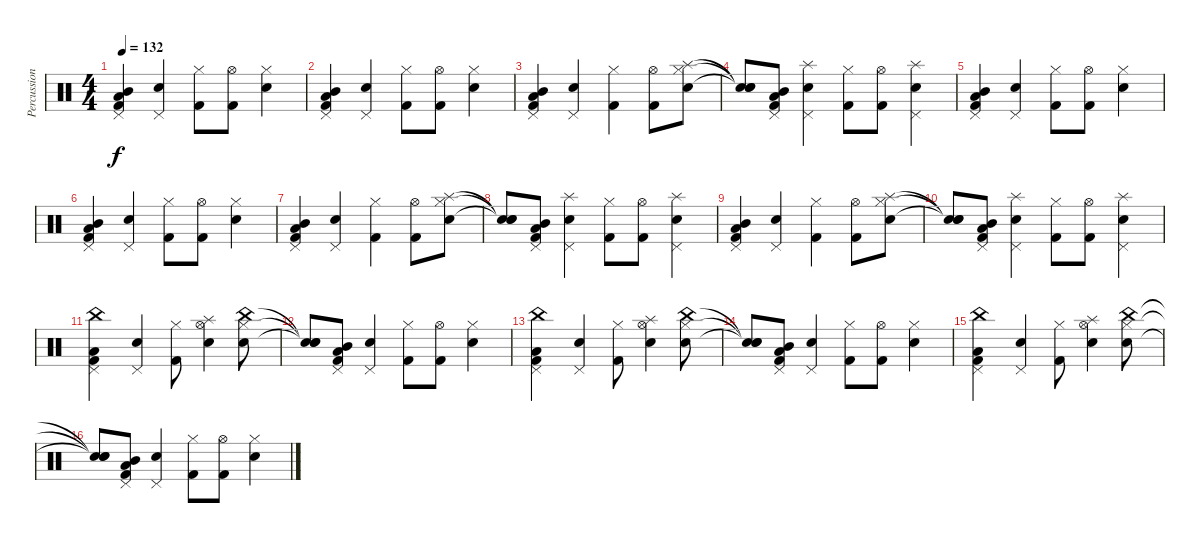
\track ("Percussions" "Percussion") {instrument percussion}
\staff {score}
\articulation defaults
\ts (4 4)
\tempo 132
\clef neutral
\ks c
("Pedal Hi-Hat (hit)" "Mid Tom (hit)" "Low Tom (hit)" "Kick (hit) 2").4{dy f} ("Pedal Hi-Hat (hit)" "Snare (hit) 2").4 ("Hi-Hat (closed)" "Kick (hit) 2").8 ("Hi-Hat (open)" "Kick (hit) 2").8 ("Hi-Hat (closed)" "Snare (hit) 2").4 |
("Pedal Hi-Hat (hit)" "Mid Tom (hit)" "Low Tom (hit)" "Kick (hit) 2").4 ("Pedal Hi-Hat (hit)" "Snare (hit) 2").4 ("Hi-Hat (closed)" "Kick (hit) 2").8 ("Hi-Hat (open)" "Kick (hit) 2").8 ("Hi-Hat (closed)" "Snare (hit) 2").4 |
("Pedal Hi-Hat (hit)" "Mid Tom (hit)" "Low Tom (hit)" "Kick (hit) 2").4 ("Pedal Hi-Hat (hit)" "Snare (hit) 2").4 ("Hi-Hat (closed)" "Kick (hit) 2").4 ("Hi-Hat (open)" "Kick (hit) 2").8 ("Hi-Hat (closed)" "Splash (hit)" "Snare (hit) 2").8 |
("Snare (hit)"{t} "Snare (hit)"{t} "Snare (hit)"{t}).8 ("Pedal Hi-Hat (hit)" "Mid Tom (hit)" "Low Tom (hit)" "Kick (hit) 2").8 ("Pedal Hi-Hat (hit)" "Splash (hit)" "Snare (hit) 2").4 ("Hi-Hat (closed)" "Kick (hit) 2").8 ("Hi-Hat (open)" "Kick (hit) 2").8 ("Pedal Hi-Hat (hit)" "Splash (hit)" "Snare (hit) 2").4 |
("Pedal Hi-Hat (hit)" "Mid Tom (hit)" "Low Tom (hit)" "Kick (hit) 2").4 ("Pedal Hi-Hat (hit)" "Snare (hit) 2").4 ("Hi-Hat (closed)" "Kick (hit) 2").8 ("Hi-Hat (open)" "Kick (hit) 2").8 ("Hi-Hat (closed)" "Snare (hit) 2").4 |
("Pedal Hi-Hat (hit)" "Mid Tom (hit)" "Low Tom (hit)" "Kick (hit) 2").4 ("Pedal Hi-Hat (hit)" "Snare (hit) 2").4 ("Hi-Hat (closed)" "Kick (hit) 2").8 ("Hi-Hat (open)" "Kick (hit) 2").8 ("Hi-Hat (closed)" "Snare (hit) 2").4 |
("Pedal Hi-Hat (hit)" "Mid Tom (hit)" "Low Tom (hit)" "Kick (hit) 2").4 ("Pedal Hi-Hat (hit)" "Snare (hit) 2").4 ("Hi-Hat (closed)" "Kick (hit) 2").4 ("Hi-Hat (open)" "Kick (hit) 2").8 ("Hi-Hat (closed)" "Splash (hit)" "Snare (hit) 2").8 |
("Snare (hit)"{t} "Snare (hit)"{t} "Snare (hit)"{t}).8 ("Pedal Hi-Hat (hit)" "Mid Tom (hit)" "Low Tom (hit)" "Kick (hit) 2").8 ("Pedal Hi-Hat (hit)" "Splash (hit)" "Snare (hit) 2").4 ("Hi-Hat (closed)" "Kick (hit) 2").8 ("Hi-Hat (open)" "Kick (hit) 2").8 ("Pedal Hi-Hat (hit)" "Splash (hit)" "Snare (hit) 2").4 |
("Pedal Hi-Hat (hit)" "Mid Tom (hit)" "Low Tom (hit)" "Kick (hit) 2").4 ("Pedal Hi-Hat (hit)" "Snare (hit) 2").4 ("Hi-Hat (closed)" "Kick (hit) 2").4 ("Hi-Hat (open)" "Kick (hit) 2").8 ("Hi-Hat (closed)" "Splash (hit)" "Snare (hit) 2").8 |
("Snare (hit)"{t} "Snare (hit)"{t} "Snare (hit)"{t}).8 ("Pedal Hi-Hat (hit)" "Mid Tom (hit)" "Low Tom (hit)" "Kick (hit) 2").8 ("Pedal Hi-Hat (hit)" "Splash (hit)" "Snare (hit) 2").4 ("Hi-Hat (closed)" "Kick (hit) 2").8 ("Hi-Hat (open)" "Kick (hit) 2").8 ("Pedal Hi-Hat (hit)" "Splash (hit)" "Snare (hit) 2").4 |
("Pedal Hi-Hat (hit)" "China (hit)" "Low Tom (hit)" "Kick (hit) 2").4 ("Pedal Hi-Hat (hit)" "Snare (hit) 2").4 ("Hi-Hat (closed)" "Kick (hit) 2").8 ("Hi-Hat (open)" "Splash (hit)" "Snare (hit) 2").4 ("Hi-Hat (closed)" "China (hit)" "Snare (hit) 2").8 |
("Snare (hit)"{t} "Snare (hit)"{t} "Snare (hit)"{t}).8 ("Pedal Hi-Hat (hit)" "Mid Tom (hit)" "Low Tom (hit)" "Kick (hit) 2").8 ("Pedal Hi-Hat (hit)" "Snare (hit) 2").4 ("Hi-Hat (closed)" "Kick (hit) 2").8 ("Hi-Hat (open)" "Kick (hit) 2").8 ("Hi-Hat (closed)" "Snare (hit) 2").4 |
("Pedal Hi-Hat (hit)" "China (hit)" "Low Tom (hit)" "Kick (hit) 2").4 ("Pedal Hi-Hat (hit)" "Snare (hit) 2").4 ("Hi-Hat (closed)" "Kick (hit) 2").8 ("Hi-Hat (open)" "Splash (hit)" "Snare (hit) 2").4 ("Hi-Hat (closed)" "China (hit)" "Snare (hit) 2").8 |
("Snare (hit)"{t} "Snare (hit)"{t} "Snare (hit)"{t}).8 ("Pedal Hi-Hat (hit)" "Mid Tom (hit)" "Low Tom (hit)" "Kick (hit) 2").8 ("Pedal Hi-Hat (hit)" "Snare (hit) 2").4 ("Hi-Hat (closed)" "Kick (hit) 2").8 ("Hi-Hat (open)" "Kick (hit) 2").8 ("Hi-Hat (closed)" "Snare (hit) 2").4 |
("Pedal Hi-Hat (hit)" "China (hit)" "Low Tom (hit)" "Kick (hit) 2").4 ("Pedal Hi-Hat (hit)" "Snare (hit) 2").4 ("Hi-Hat (closed)" "Kick (hit) 2").8 ("Hi-Hat (open)" "Splash (hit)" "Snare (hit) 2").4 ("Hi-Hat (closed)" "China (hit)" "Snare (hit) 2").8 |
("Snare (hit)"{t} "Snare (hit)"{t} "Snare (hit)"{t}).8 ("Pedal Hi-Hat (hit)" "Mid Tom (hit)" "Low Tom (hit)" "Kick (hit) 2").8 ("Pedal Hi-Hat (hit)" "Snare (hit) 2").4 ("Hi-Hat (closed)" "Kick (hit) 2").8 ("Hi-Hat (open)" "Kick (hit) 2").8 ("Hi-Hat (closed)" "Snare (hit) 2").4
